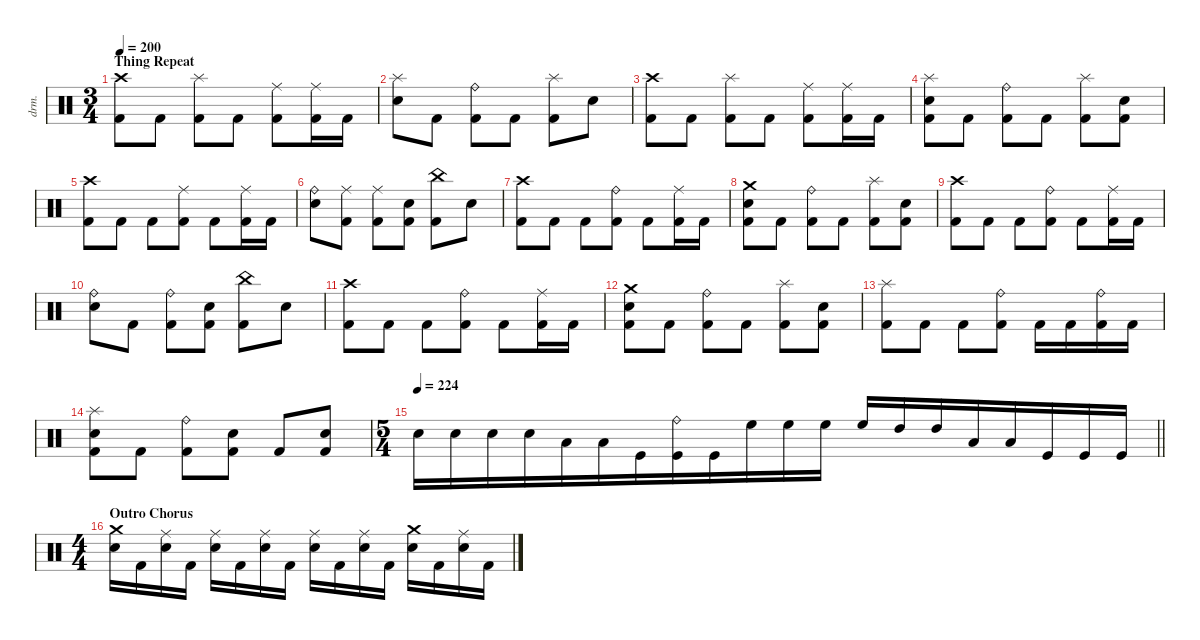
\defaultSystemsLayout 4
\hideDynamics
\bracketExtendMode nobrackets
\otherSystemsTrackNameOrientation horizontal
\track ("Percussion" "drm.") {instrument percussion}
\staff {score}
\articulation defaults
\ts (3 4)
\beaming (8 2 2 2)
\section ("" "Thing Repeat")
\tempo 200
\clef neutral
\ks c
("Crash high (hit)" "Kick (hit) 2").8{dy f beam Down} "Kick (hit) 2".8{beam Down} ("Splash (hit)" "Kick (hit) 2").8{beam Down} "Kick (hit) 2".8{beam Down} ("Ride (middle)" "Kick (hit) 2").8{beam Down} ("Ride (middle)" "Kick (hit) 2").16{beam Down} "Kick (hit) 2".16{beam Down} |
("Splash (hit)" "Snare (hit) 2").8{beam Down} "Kick (hit) 2".8{beam Down} ("Ride (bell)" "Kick (hit) 2").8{beam Down} "Kick (hit) 2".8{beam Down} ("Splash (hit)" "Kick (hit) 2").8{beam Down} "Snare (hit) 2".8{beam Down} |
("Crash high (hit)" "Kick (hit) 2").8{beam Down} "Kick (hit) 2".8{beam Down} ("Splash (hit)" "Kick (hit) 2").8{beam Down} "Kick (hit) 2".8{beam Down} ("Ride (middle)" "Kick (hit) 2").8{beam Down} ("Ride (middle)" "Kick (hit) 2").16{beam Down} "Kick (hit) 2".16{beam Down} |
("Splash (hit)" "Snare (hit) 2" "Kick (hit) 2").8{beam Down} "Kick (hit) 2".8{beam Down} ("Ride (bell)" "Kick (hit) 2").8{beam Down} "Kick (hit) 2".8{beam Down} ("Splash (hit)" "Kick (hit) 2").8{beam Down} ("Snare (hit) 2" "Kick (hit) 2").8{beam Down} |
("Crash high (hit)" "Kick (hit) 2").8{beam Down} "Kick (hit) 2".8{beam Down} "Kick (hit) 2".8{beam Down} ("Ride (middle)" "Kick (hit) 2").8{beam Down} "Kick (hit) 2".8{beam Down} ("Ride (middle)" "Kick (hit) 2").16{beam Down} "Kick (hit) 2".16{beam Down} |
("Ride (bell)" "Snare (hit) 2").8{beam Down} ("Ride (middle)" "Kick (hit) 2").8{beam Down} ("Ride (middle)" "Kick (hit) 2").8{beam Down} ("Snare (hit) 2" "Kick (hit) 2").8{beam Down} ("China (hit)" "Kick (hit) 2").8{beam Down} "Snare (hit) 2".8{beam Down} |
("Crash high (hit)" "Kick (hit) 2").8{beam Down} "Kick (hit) 2".8{beam Down} "Kick (hit) 2".8{beam Down} ("Ride (bell)" "Kick (hit) 2").8{beam Down} "Kick (hit) 2".8{beam Down} ("Ride (middle)" "Kick (hit) 2").16{beam Down} "Kick (hit) 2".16{beam Down} |
("Crash medium (hit)" "Snare (hit) 2" "Kick (hit) 2").8{beam Down} "Kick (hit) 2".8{beam Down} ("Ride (bell)" "Kick (hit) 2").8{beam Down} "Kick (hit) 2".8{beam Down} ("Splash (hit)" "Kick (hit) 2").8{beam Down} ("Snare (hit) 2" "Kick (hit) 2").8{beam Down} |
("Crash high (hit)" "Kick (hit) 2").8{beam Down} "Kick (hit) 2".8{beam Down} "Kick (hit) 2".8{beam Down} ("Ride (bell)" "Kick (hit) 2").8{beam Down} "Kick (hit) 2".8{beam Down} ("Ride (middle)" "Kick (hit) 2").16{beam Down} "Kick (hit) 2".16{beam Down} |
("Ride (bell)" "Snare (hit) 2").8{beam Down} "Kick (hit) 2".8{beam Down} ("Ride (bell)" "Kick (hit) 2").8{beam Down} ("Snare (hit) 2" "Kick (hit) 2").8{beam Down} ("China (hit)" "Kick (hit) 2").8{beam Down} "Snare (hit) 2".8{beam Down} |
("Crash high (hit)" "Kick (hit) 2").8{beam Down} "Kick (hit) 2".8{beam Down} "Kick (hit) 2".8{beam Down} ("Ride (bell)" "Kick (hit) 2").8{beam Down} "Kick (hit) 2".8{beam Down} ("Ride (middle)" "Kick (hit) 2").16{beam Down} "Kick (hit) 2".16{beam Down} |
("Crash medium (hit)" "Snare (hit) 2" "Kick (hit) 2").8{beam Down} "Kick (hit) 2".8{beam Down} ("Ride (bell)" "Kick (hit) 2").8{beam Down} "Kick (hit) 2".8{beam Down} ("Splash (hit)" "Kick (hit) 2").8{beam Down} ("Snare (hit) 2" "Kick (hit) 2").8{beam Down} |
("Splash (hit)" "Kick (hit) 2").8{beam Down} "Kick (hit) 2".8{beam Down} "Kick (hit) 2".8{beam Down} ("Ride (bell)" "Kick (hit) 2").8{beam Down} "Kick (hit) 2".16{beam Down} "Kick (hit) 2".16{beam Down} ("Ride (bell)" "Kick (hit) 2").16{beam Down} "Kick (hit) 2".16{beam Down} |
("Splash (hit)" "Snare (hit) 2" "Kick (hit) 2").8{beam Down} "Kick (hit) 2".8{beam Down} ("Ride (bell)" "Kick (hit) 2").8{beam Down} ("Snare (hit) 2" "Kick (hit) 2").8{beam Down} "Kick (hit) 2".8{beam Up} ("Snare (hit) 2" "Kick (hit) 2").8{beam Up} |
\ts (5 4)
\beaming (8 6 4)
\tempo 224
\barLineRight lightlight "Snare (hit) 2".16{beam Down} "Snare (hit) 2".16{beam Down} "Snare (hit) 2".16{beam Down} "Snare (hit) 2".16{beam Down} "Low Tom (hit)".16{beam Down} "Low Tom (hit)".16{beam Down} "Kick (hit)".16{beam Down}
("Ride (bell)" "Kick (hit)").16{beam Down} "Kick (hit)".16{beam Down} "High Floor Tom (hit)".16{beam Down} "High Floor Tom (hit)".16{beam Down} "High Floor Tom (hit)".16{beam Down} "High Floor Tom (hit)".16{beam Up} "High Tom (hit)".16{beam Up} "High Tom (hit)".16{beam Up} "Low Tom (hit)".16{beam Up} "Low Tom (hit)".16{beam Up} "Kick (hit)".16{beam Up} "Kick (hit)".16{beam Up} "Kick (hit)".16{beam Up} |
\ts (4 4)
\beaming (8 2 2 2 2)
\section ("" "Outro Chorus")
("Crash medium (hit)" "Snare (hit) 2").16{beam Down} "Kick (hit) 2".16{beam Down} ("Ride (middle)" "Snare (hit) 2").16{beam Down} "Kick (hit) 2".16{beam Down} ("Ride (middle)" "Snare (hit) 2").16{beam Down} "Kick (hit) 2".16{beam Down} ("Ride (middle)" "Snare (hit) 2").16{beam Down} "Kick (hit) 2".16{beam Down} ("Ride (middle)" "Snare (hit) 2").16{beam Down} "Kick (hit) 2".16{beam Down} ("Ride (middle)" "Snare (hit) 2").16{beam Down} "Kick (hit) 2".16{beam Down} ("Crash medium (hit)" "Snare (hit) 2").16{beam Down} "Kick (hit) 2".16{beam Down} ("Ride (middle)" "Snare (hit) 2").16{beam Down} "Kick (hit) 2".16{beam Down}
